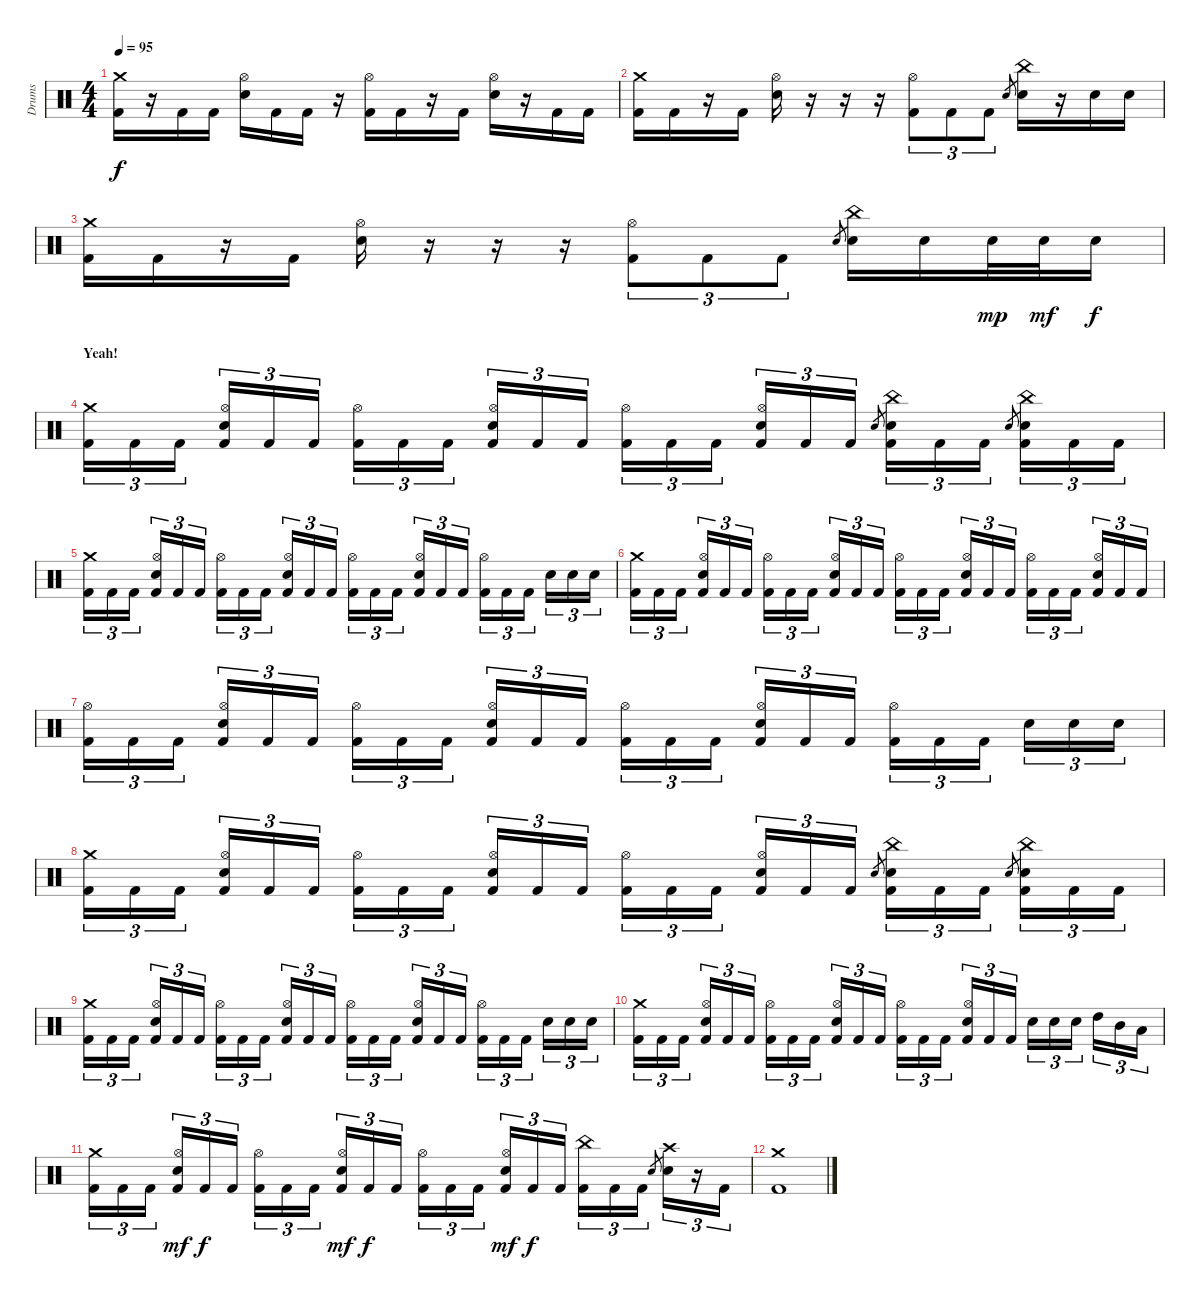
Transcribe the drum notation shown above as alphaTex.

\track ("Drums" "Drums") {instrument percussion}
\staff {score}
\articulation defaults
\ts (4 4)
\tempo 95
\clef neutral
\ks c
("Crash medium (hit)" "Kick (hit) 2").16{dy f} r.16 "Kick (hit) 2".16 "Kick (hit) 2".16 ("Hi-Hat (open)" "Snare (hit) 2").16 "Kick (hit) 2".16 "Kick (hit) 2".16 r.16 ("Hi-Hat (open)" "Kick (hit) 2").16 "Kick (hit) 2".16 r.16 "Kick (hit) 2".16 ("Hi-Hat (open)" "Snare (hit) 2").16 r.16 "Kick (hit) 2".16 "Kick (hit) 2".16 |
("Crash medium (hit)" "Kick (hit) 2").16 "Kick (hit) 2".16 r.16 "Kick (hit) 2".16 ("Hi-Hat (open)" "Snare (hit) 2").16 r.16 r.16 r.16 ("Hi-Hat (open)" "Kick (hit) 2").8{tu (3 2)} "Kick (hit) 2".8{tu (3 2)} "Kick (hit) 2".8{tu (3 2)} "Snare (hit) 2".8{gr} ("China (hit)" "Snare (hit) 2").16 r.16 "Snare (hit) 2".16 "Snare (hit) 2".16 |
("Crash medium (hit)" "Kick (hit) 2").16 "Kick (hit) 2".16 r.16 "Kick (hit) 2".16 ("Hi-Hat (open)" "Snare (hit) 2").16 r.16 r.16 r.16 ("Hi-Hat (open)" "Kick (hit) 2").8{tu (3 2)} "Kick (hit) 2".8{tu (3 2)} "Kick (hit) 2".8{tu (3 2)} "Snare (hit) 2".8{gr} ("China (hit)" "Snare (hit) 2").16 "Snare (hit) 2".16 "Snare (hit) 2".32{dy mp} "Snare (hit) 2".32{dy mf} "Snare (hit) 2".16{dy f} |
\section ("" "Yeah!")
("Crash medium (hit)" "Kick (hit) 2").16{tu (3 2)} "Kick (hit) 2".16{tu (3 2)} "Kick (hit) 2".16{tu (3 2)} ("Hi-Hat (open)" "Snare (hit) 2" "Kick (hit) 2").16{tu (3 2)} "Kick (hit) 2".16{tu (3 2)} "Kick (hit) 2".16{tu (3 2)} ("Hi-Hat (open)" "Kick (hit) 2").16{tu (3 2)} "Kick (hit) 2".16{tu (3 2)} "Kick (hit) 2".16{tu (3 2)} ("Hi-Hat (open)" "Snare (hit) 2" "Kick (hit) 2").16{tu (3 2)} "Kick (hit) 2".16{tu (3 2)} "Kick (hit) 2".16{tu (3 2)} ("Hi-Hat (open)" "Kick (hit) 2").16{tu (3 2)} "Kick (hit) 2".16{tu (3 2)} "Kick (hit) 2".16{tu (3 2)} ("Hi-Hat (open)" "Snare (hit) 2" "Kick (hit) 2").16{tu (3 2)} "Kick (hit) 2".16{tu (3 2)} "Kick (hit) 2".16{tu (3 2)} "Snare (hit) 2".8{gr} ("China (hit)" "Snare (hit) 2" "Kick (hit) 2").16{tu (3 2)} "Kick (hit) 2".16{tu (3 2)} "Kick (hit) 2".16{tu (3 2)} "Snare (hit) 2".8{gr} ("China (hit)" "Snare (hit) 2" "Kick (hit) 2").16{tu (3 2)} "Kick (hit) 2".16{tu (3 2)} "Kick (hit) 2".16{tu (3 2)} |
("Crash medium (hit)" "Kick (hit) 2").16{tu (3 2)} "Kick (hit) 2".16{tu (3 2)} "Kick (hit) 2".16{tu (3 2)} ("Hi-Hat (open)" "Snare (hit) 2" "Kick (hit) 2").16{tu (3 2)} "Kick (hit) 2".16{tu (3 2)} "Kick (hit) 2".16{tu (3 2)} ("Hi-Hat (open)" "Kick (hit) 2").16{tu (3 2)} "Kick (hit) 2".16{tu (3 2)} "Kick (hit) 2".16{tu (3 2)} ("Hi-Hat (open)" "Snare (hit) 2" "Kick (hit) 2").16{tu (3 2)} "Kick (hit) 2".16{tu (3 2)} "Kick (hit) 2".16{tu (3 2)} ("Hi-Hat (open)" "Kick (hit) 2").16{tu (3 2)} "Kick (hit) 2".16{tu (3 2)} "Kick (hit) 2".16{tu (3 2)} ("Hi-Hat (open)" "Snare (hit) 2" "Kick (hit) 2").16{tu (3 2)} "Kick (hit) 2".16{tu (3 2)} "Kick (hit) 2".16{tu (3 2)} ("Hi-Hat (open)" "Kick (hit) 2").16{tu (3 2)} "Kick (hit) 2".16{tu (3 2)} "Kick (hit) 2".16{tu (3 2)} "Snare (hit) 2".16{tu (3 2)} "Snare (hit) 2".16{tu (3 2)} "Snare (hit) 2".16{tu (3 2)} |
("Crash medium (hit)" "Kick (hit) 2").16{tu (3 2)} "Kick (hit) 2".16{tu (3 2)} "Kick (hit) 2".16{tu (3 2)} ("Hi-Hat (open)" "Snare (hit) 2" "Kick (hit) 2").16{tu (3 2)} "Kick (hit) 2".16{tu (3 2)} "Kick (hit) 2".16{tu (3 2)} ("Hi-Hat (open)" "Kick (hit) 2").16{tu (3 2)} "Kick (hit) 2".16{tu (3 2)} "Kick (hit) 2".16{tu (3 2)} ("Hi-Hat (open)" "Snare (hit) 2" "Kick (hit) 2").16{tu (3 2)} "Kick (hit) 2".16{tu (3 2)} "Kick (hit) 2".16{tu (3 2)} ("Hi-Hat (open)" "Kick (hit) 2").16{tu (3 2)} "Kick (hit) 2".16{tu (3 2)} "Kick (hit) 2".16{tu (3 2)} ("Hi-Hat (open)" "Snare (hit) 2" "Kick (hit) 2").16{tu (3 2)} "Kick (hit) 2".16{tu (3 2)} "Kick (hit) 2".16{tu (3 2)} ("Hi-Hat (open)" "Kick (hit) 2").16{tu (3 2)} "Kick (hit) 2".16{tu (3 2)} "Kick (hit) 2".16{tu (3 2)} ("Hi-Hat (open)" "Snare (hit) 2" "Kick (hit) 2").16{tu (3 2)} "Kick (hit) 2".16{tu (3 2)} "Kick (hit) 2".16{tu (3 2)} |
("Hi-Hat (open)" "Kick (hit) 2").16{tu (3 2)} "Kick (hit) 2".16{tu (3 2)} "Kick (hit) 2".16{tu (3 2)} ("Hi-Hat (open)" "Snare (hit) 2" "Kick (hit) 2").16{tu (3 2)} "Kick (hit) 2".16{tu (3 2)} "Kick (hit) 2".16{tu (3 2)} ("Hi-Hat (open)" "Kick (hit) 2").16{tu (3 2)} "Kick (hit) 2".16{tu (3 2)} "Kick (hit) 2".16{tu (3 2)} ("Hi-Hat (open)" "Snare (hit) 2" "Kick (hit) 2").16{tu (3 2)} "Kick (hit) 2".16{tu (3 2)} "Kick (hit) 2".16{tu (3 2)} ("Hi-Hat (open)" "Kick (hit) 2").16{tu (3 2)} "Kick (hit) 2".16{tu (3 2)} "Kick (hit) 2".16{tu (3 2)} ("Hi-Hat (open)" "Snare (hit) 2" "Kick (hit) 2").16{tu (3 2)} "Kick (hit) 2".16{tu (3 2)} "Kick (hit) 2".16{tu (3 2)} ("Hi-Hat (open)" "Kick (hit) 2").16{tu (3 2)} "Kick (hit) 2".16{tu (3 2)} "Kick (hit) 2".16{tu (3 2)} "Snare (hit) 2".16{tu (3 2)} "Snare (hit) 2".16{tu (3 2)} "Snare (hit) 2".16{tu (3 2)} |
("Crash medium (hit)" "Kick (hit) 2").16{tu (3 2)} "Kick (hit) 2".16{tu (3 2)} "Kick (hit) 2".16{tu (3 2)} ("Hi-Hat (open)" "Snare (hit) 2" "Kick (hit) 2").16{tu (3 2)} "Kick (hit) 2".16{tu (3 2)} "Kick (hit) 2".16{tu (3 2)} ("Hi-Hat (open)" "Kick (hit) 2").16{tu (3 2)} "Kick (hit) 2".16{tu (3 2)} "Kick (hit) 2".16{tu (3 2)} ("Hi-Hat (open)" "Snare (hit) 2" "Kick (hit) 2").16{tu (3 2)} "Kick (hit) 2".16{tu (3 2)} "Kick (hit) 2".16{tu (3 2)} ("Hi-Hat (open)" "Kick (hit) 2").16{tu (3 2)} "Kick (hit) 2".16{tu (3 2)} "Kick (hit) 2".16{tu (3 2)} ("Hi-Hat (open)" "Snare (hit) 2" "Kick (hit) 2").16{tu (3 2)} "Kick (hit) 2".16{tu (3 2)} "Kick (hit) 2".16{tu (3 2)} "Snare (hit) 2".8{gr} ("China (hit)" "Snare (hit) 2" "Kick (hit) 2").16{tu (3 2)} "Kick (hit) 2".16{tu (3 2)} "Kick (hit) 2".16{tu (3 2)} "Snare (hit) 2".8{gr} ("China (hit)" "Snare (hit) 2" "Kick (hit) 2").16{tu (3 2)} "Kick (hit) 2".16{tu (3 2)} "Kick (hit) 2".16{tu (3 2)} |
("Crash medium (hit)" "Kick (hit) 2").16{tu (3 2)} "Kick (hit) 2".16{tu (3 2)} "Kick (hit) 2".16{tu (3 2)} ("Hi-Hat (open)" "Snare (hit) 2" "Kick (hit) 2").16{tu (3 2)} "Kick (hit) 2".16{tu (3 2)} "Kick (hit) 2".16{tu (3 2)} ("Hi-Hat (open)" "Kick (hit) 2").16{tu (3 2)} "Kick (hit) 2".16{tu (3 2)} "Kick (hit) 2".16{tu (3 2)} ("Hi-Hat (open)" "Snare (hit) 2" "Kick (hit) 2").16{tu (3 2)} "Kick (hit) 2".16{tu (3 2)} "Kick (hit) 2".16{tu (3 2)} ("Hi-Hat (open)" "Kick (hit) 2").16{tu (3 2)} "Kick (hit) 2".16{tu (3 2)} "Kick (hit) 2".16{tu (3 2)} ("Hi-Hat (open)" "Snare (hit) 2" "Kick (hit) 2").16{tu (3 2)} "Kick (hit) 2".16{tu (3 2)} "Kick (hit) 2".16{tu (3 2)} ("Hi-Hat (open)" "Kick (hit) 2").16{tu (3 2)} "Kick (hit) 2".16{tu (3 2)} "Kick (hit) 2".16{tu (3 2)} "Snare (hit) 2".16{tu (3 2)} "Snare (hit) 2".16{tu (3 2)} "Snare (hit) 2".16{tu (3 2)} |
("Crash medium (hit)" "Kick (hit) 2").16{tu (3 2)} "Kick (hit) 2".16{tu (3 2)} "Kick (hit) 2".16{tu (3 2)} ("Hi-Hat (open)" "Snare (hit) 2" "Kick (hit) 2").16{tu (3 2)} "Kick (hit) 2".16{tu (3 2)} "Kick (hit) 2".16{tu (3 2)} ("Hi-Hat (open)" "Kick (hit) 2").16{tu (3 2)} "Kick (hit) 2".16{tu (3 2)} "Kick (hit) 2".16{tu (3 2)} ("Hi-Hat (open)" "Snare (hit) 2" "Kick (hit) 2").16{tu (3 2)} "Kick (hit) 2".16{tu (3 2)} "Kick (hit) 2".16{tu (3 2)} ("Hi-Hat (open)" "Kick (hit) 2").16{tu (3 2)} "Kick (hit) 2".16{tu (3 2)} "Kick (hit) 2".16{tu (3 2)} ("Hi-Hat (open)" "Snare (hit) 2" "Kick (hit) 2").16{tu (3 2)} "Kick (hit) 2".16{tu (3 2)} "Kick (hit) 2".16{tu (3 2)} "Snare (hit) 2".16{tu (3 2)} "Snare (hit) 2".16{tu (3 2)} "Snare (hit) 2".16{tu (3 2)} "High Tom (hit)".16{tu (3 2)} "Mid Tom (hit)".16{tu (3 2)} "Low Tom (hit)".16{tu (3 2)} |
("Crash medium (hit)" "Kick (hit) 2").16{tu (3 2)} "Kick (hit) 2".16{tu (3 2)} "Kick (hit) 2".16{tu (3 2)} ("Hi-Hat (open)" "Snare (hit) 2" "Kick (hit) 2").16{tu (3 2) dy mf} "Kick (hit) 2".16{tu (3 2) dy f} "Kick (hit) 2".16{tu (3 2)} ("Hi-Hat (open)" "Kick (hit) 2").16{tu (3 2)} "Kick (hit) 2".16{tu (3 2)} "Kick (hit) 2".16{tu (3 2)} ("Hi-Hat (open)" "Snare (hit) 2" "Kick (hit) 2").16{tu (3 2) dy mf} "Kick (hit) 2".16{tu (3 2) dy f} "Kick (hit) 2".16{tu (3 2)} ("Hi-Hat (open)" "Kick (hit) 2").16{tu (3 2)} "Kick (hit) 2".16{tu (3 2)} "Kick (hit) 2".16{tu (3 2)} ("Hi-Hat (open)" "Snare (hit) 2" "Kick (hit) 2").16{tu (3 2) dy mf} "Kick (hit) 2".16{tu (3 2) dy f} "Kick (hit) 2".16{tu (3 2)} ("China (hit)" "Kick (hit) 2").16{tu (3 2)} "Kick (hit) 2".16{tu (3 2)} "Kick (hit) 2".16{tu (3 2)} "Snare (hit) 2".8{gr} ("Crash high (hit)" "Snare (hit) 2").16{tu (3 2)} r.16{tu (3 2)} "Kick (hit) 2".16{tu (3 2)} |
("Crash medium (hit)" "Kick (hit) 2").1
